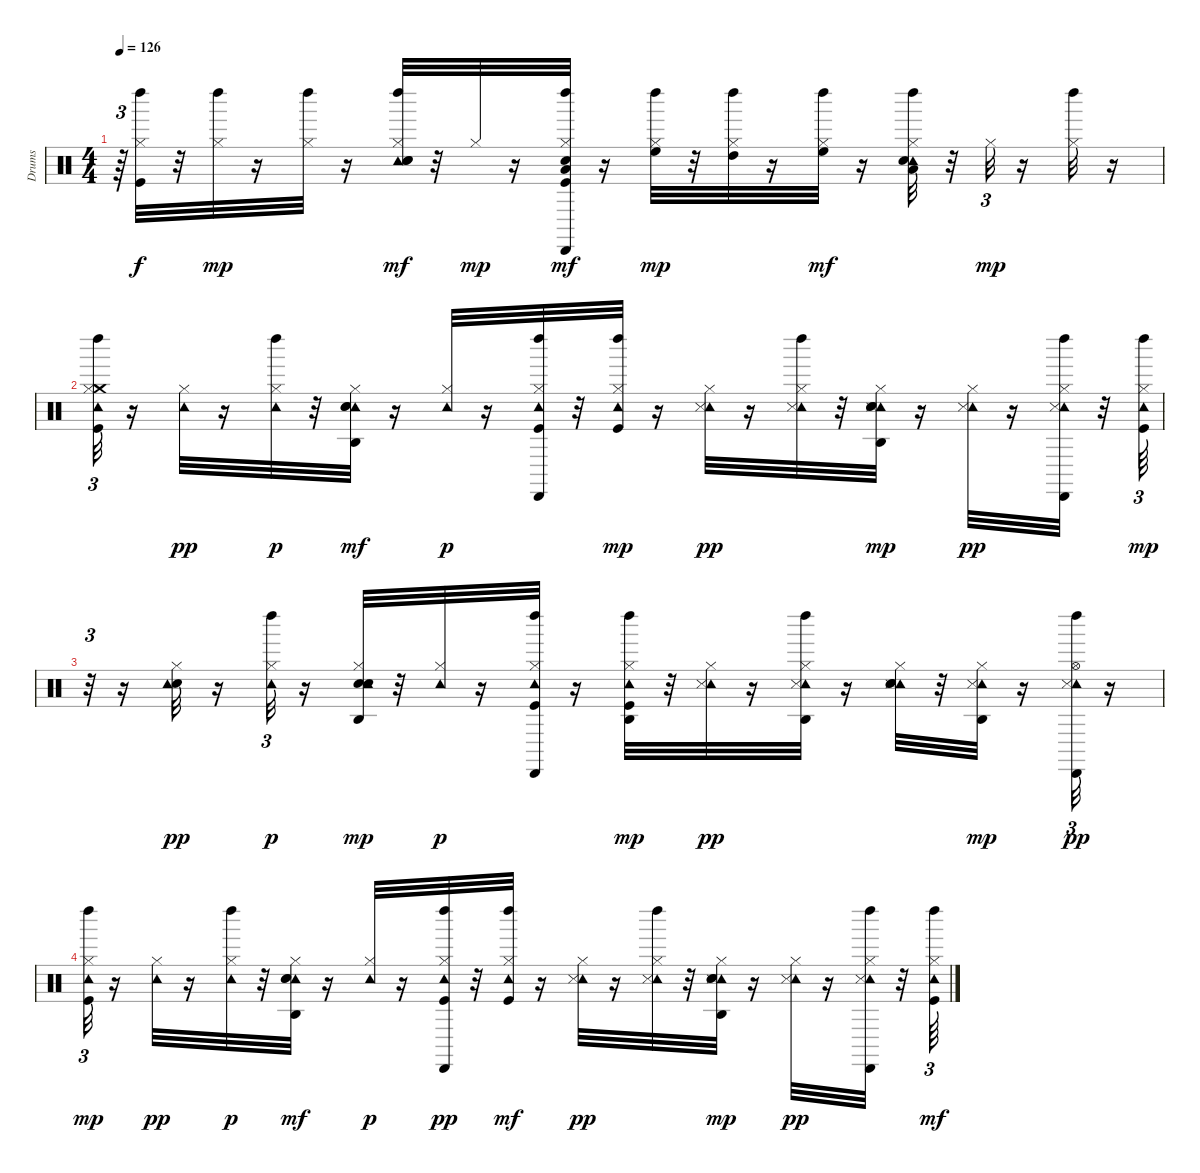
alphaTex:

\track ("Drums" "Drums") {instrument percussion}
\staff {score}
\articulation defaults
\ts (4 4)
\tempo 126
\clef neutral
\ks c
r.64{tu (3 2) dy pp} ("Left Maraca (hit)" "Kick (hit)" "Hi-Hat (closed)").32{dy f} r.32 ("Left Maraca (hit)" "Hi-Hat (closed)").32{dy mp} r.16 ("Left Maraca (hit)" "Hi-Hat (closed)").32 r.16 ("Left Maraca (hit)" "Tambourine (hit)" "Snare (hit) 2" "Hi-Hat (closed)" "Hand Clap (hit)").32{dy mf} r.32 "Hi-Hat (closed)".32{dy mp} r.16 ("Kick (hit)" "Snare (hit) 2" "Hi-Hat (closed)" "Low Tom (hit)" "Left Maraca (hit)" "Cabasa (hit)").32{dy mf} r.16 ("Hi-Hat (closed)" "High Floor Tom (hit)" "Left Maraca (hit)").32{dy mp} r.32 ("Hi-Hat (closed)" "Left Maraca (hit)" "High Tom (hit)").32 r.16 ("Hi-Hat (closed)" "Left Maraca (hit)" "High Floor Tom (hit)").32{dy mf} r.16 ("Hi-Hat (closed)" "Tambourine (hit)" "Hand Clap (hit)" "Low Tom (hit)" "Left Maraca (hit)").32 r.32 "Hi-Hat (closed)".32{tu (3 2) dy mp} r.16 ("Hi-Hat (closed)" "Left Maraca (hit)").32 r.16 |
("Crash medium (hit)" "Kick (hit)" "Hi-Hat (closed)" "Left Maraca (hit)" "Tambourine (hit)").32{tu (3 2)} r.16 ("Hi-Hat (closed)" "Tambourine (hit)").32{dy pp} r.16 ("Hi-Hat (closed)" "Tambourine (hit)" "Left Maraca (hit)").32{dy p} r.32 ("Hi-Hat (closed)" "Tambourine (hit)" "Agogo high (hit)" "Snare (hit) 2" "Hand Clap (hit)").32{dy mf} r.16 ("Hi-Hat (closed)" "Tambourine (hit)").32{dy p} r.16 ("Cabasa (hit)" "Kick (hit)" "Hi-Hat (closed)" "Tambourine (hit)" "Left Maraca (hit)").32 r.32 ("Hi-Hat (closed)" "Tambourine (hit)" "Kick (hit)" "Left Maraca (hit)").32{dy mp} r.16 ("Hi-Hat (closed)" "Tambourine (hit)" "Snare (side stick) 3").32{dy pp} r.16 ("Hi-Hat (closed)" "Left Maraca (hit)" "Tambourine (hit)" "Snare (side stick) 3").32 r.32 ("Hi-Hat (closed)" "Tambourine (hit)" "Hand Clap (hit)" "Snare (hit) 2" "Snare (side stick) 3" "Agogo high (hit)").32{dy mp} r.16 ("Hi-Hat (closed)" "Tambourine (hit)" "Snare (side stick) 3").32{dy pp} r.16 ("Cabasa (hit)" "Hi-Hat (closed)" "Left Maraca (hit)" "Tambourine (hit)" "Snare (side stick) 3").32 r.32 ("Tambourine (hit)" "Kick (hit)" "Hi-Hat (closed)" "Left Maraca (hit)").64{tu (3 2) dy mp} |
r.32{tu (3 2)} r.16 ("Electric Snare (hit)" "Hi-Hat (closed)" "Tambourine (hit)").32{dy pp} r.16 ("Left Maraca (hit)" "Hi-Hat (closed)" "Tambourine (hit)").32{tu (3 2) dy p} r.16 ("Snare (hit) 2" "Hi-Hat (closed)" "Tambourine (hit)" "Agogo high (hit)" "Hand Clap (hit)").32{dy mp} r.32 ("Hi-Hat (closed)" "Tambourine (hit)").32{dy p} r.16 ("Kick (hit)" "Hi-Hat (closed)" "Left Maraca (hit)" "Tambourine (hit)" "Cabasa (hit)").32 r.16 ("Tambourine (hit)" "Kick (hit)" "Hi-Hat (closed)" "Left Maraca (hit)" "Agogo high (hit)").32{dy mp} r.32 ("Hi-Hat (closed)" "Tambourine (hit)" "Snare (side stick) 3").32{dy pp} r.16 ("Hi-Hat (closed)" "Left Maraca (hit)" "Tambourine (hit)" "Agogo high (hit)" "Snare (side stick) 3").32 r.16 ("Hi-Hat (closed)" "Tambourine (hit)" "Hand Clap (hit)" "Snare (hit) 2" "Snare (side stick) 3").32 r.32 ("Hi-Hat (closed)" "Tambourine (hit)" "Snare (side stick) 3" "Agogo high (hit)").32{dy mp} r.16 ("Hi-Hat (open)" "Left Maraca (hit)" "Tambourine (hit)" "Cabasa (hit)" "Snare (side stick) 3").32{tu (3 2) dy pp} r.16 |
("Kick (hit)" "Hi-Hat (closed)" "Left Maraca (hit)" "Tambourine (hit)").32{tu (3 2) dy mp} r.16 ("Hi-Hat (closed)" "Tambourine (hit)").32{dy pp} r.16 ("Hi-Hat (closed)" "Tambourine (hit)" "Left Maraca (hit)").32{dy p} r.32 ("Hi-Hat (closed)" "Tambourine (hit)" "Agogo high (hit)" "Snare (hit) 2" "Hand Clap (hit)").32{dy mf} r.16 ("Hi-Hat (closed)" "Tambourine (hit)").32{dy p} r.16 ("Cabasa (hit)" "Kick (hit)" "Hi-Hat (closed)" "Tambourine (hit)" "Left Maraca (hit)").32{dy pp} r.32 ("Hi-Hat (closed)" "Tambourine (hit)" "Kick (hit)" "Left Maraca (hit)").32{dy mf} r.16 ("Hi-Hat (closed)" "Tambourine (hit)" "Snare (side stick) 3").32{dy pp} r.16 ("Hi-Hat (closed)" "Left Maraca (hit)" "Tambourine (hit)" "Snare (side stick) 3").32 r.32 ("Hi-Hat (closed)" "Tambourine (hit)" "Hand Clap (hit)" "Snare (hit) 2" "Snare (side stick) 3" "Agogo high (hit)").32{dy mp} r.16 ("Hi-Hat (closed)" "Tambourine (hit)" "Snare (side stick) 3").32{dy pp} r.16 ("Cabasa (hit)" "Hi-Hat (closed)" "Left Maraca (hit)" "Tambourine (hit)" "Snare (side stick) 3").32 r.32 ("Tambourine (hit)" "Kick (hit)" "Hi-Hat (closed)" "Left Maraca (hit)").64{tu (3 2) dy mf}
